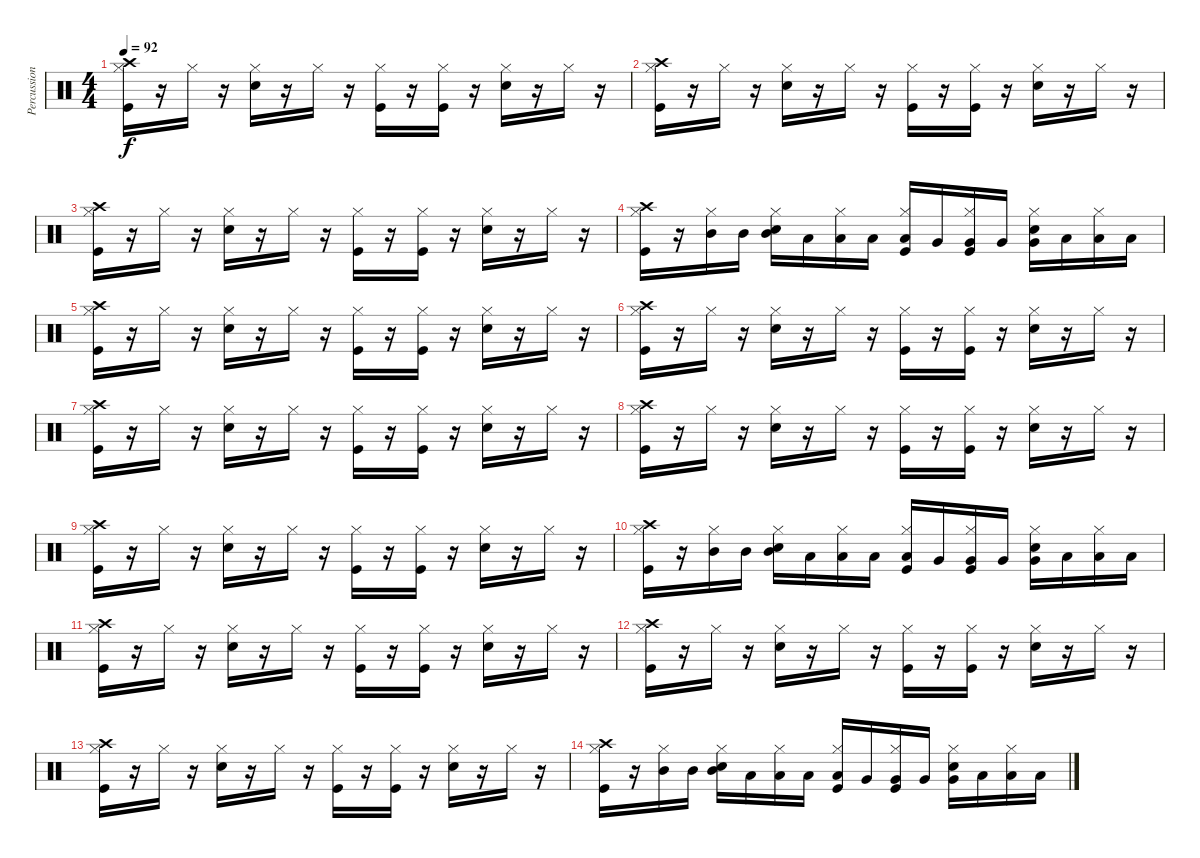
\track ("Percussion" "Percussion") {instrument percussion}
\staff {score}
\articulation defaults
\ts (4 4)
\tempo 92
\clef neutral
\ks c
("Crash high (hit)" "Kick (hit)" "Hi-Hat (closed)").16{dy f} r.16 "Hi-Hat (closed)".16 r.16 ("Hi-Hat (closed)" "Snare (hit) 2").16 r.16 "Hi-Hat (closed)".16 r.16 ("Kick (hit)" "Hi-Hat (closed)").16 r.16 ("Kick (hit)" "Hi-Hat (closed)").16 r.16 ("Snare (hit) 2" "Hi-Hat (closed)").16 r.16 "Hi-Hat (closed)".16 r.16 |
("Crash high (hit)" "Kick (hit)" "Hi-Hat (closed)").16 r.16 "Hi-Hat (closed)".16 r.16 ("Hi-Hat (closed)" "Snare (hit) 2").16 r.16 "Hi-Hat (closed)".16 r.16 ("Kick (hit)" "Hi-Hat (closed)").16 r.16 ("Kick (hit)" "Hi-Hat (closed)").16 r.16 ("Snare (hit) 2" "Hi-Hat (closed)").16 r.16 "Hi-Hat (closed)".16 r.16 |
("Crash high (hit)" "Kick (hit)" "Hi-Hat (closed)").16 r.16 "Hi-Hat (closed)".16 r.16 ("Hi-Hat (closed)" "Snare (hit) 2").16 r.16 "Hi-Hat (closed)".16 r.16 ("Kick (hit)" "Hi-Hat (closed)").16 r.16 ("Kick (hit)" "Hi-Hat (closed)").16 r.16 ("Snare (hit) 2" "Hi-Hat (closed)").16 r.16 "Hi-Hat (closed)".16 r.16 |
("Crash high (hit)" "Kick (hit)" "Hi-Hat (closed)").16 r.16 ("Hi-Hat (closed)" "Mid Tom (hit)").16 "Mid Tom (hit)".16 ("Hi-Hat (closed)" "Snare (hit) 2" "Mid Tom (hit)").16 "Low Tom (hit)".16 ("Hi-Hat (closed)" "Low Tom (hit)").16 "Low Tom (hit)".16 ("Kick (hit)" "Hi-Hat (closed)" "Low Tom (hit)").16 "Very Low Tom (hit)".16 ("Kick (hit)" "Hi-Hat (closed)" "Very Low Tom (hit)").16 "Very Low Tom (hit)".16 ("Snare (hit) 2" "Hi-Hat (closed)" "Very Low Tom (hit)").16 "Low Floor Tom (hit)".16 ("Hi-Hat (closed)" "Low Floor Tom (hit)").16 "Low Floor Tom (hit)".16 |
("Crash high (hit)" "Kick (hit)" "Hi-Hat (closed)").16 r.16 "Hi-Hat (closed)".16 r.16 ("Hi-Hat (closed)" "Snare (hit) 2").16 r.16 "Hi-Hat (closed)".16 r.16 ("Kick (hit)" "Hi-Hat (closed)").16 r.16 ("Kick (hit)" "Hi-Hat (closed)").16 r.16 ("Snare (hit) 2" "Hi-Hat (closed)").16 r.16 "Hi-Hat (closed)".16 r.16 |
("Crash high (hit)" "Kick (hit)" "Hi-Hat (closed)").16 r.16 "Hi-Hat (closed)".16 r.16 ("Hi-Hat (closed)" "Snare (hit) 2").16 r.16 "Hi-Hat (closed)".16 r.16 ("Kick (hit)" "Hi-Hat (closed)").16 r.16 ("Kick (hit)" "Hi-Hat (closed)").16 r.16 ("Snare (hit) 2" "Hi-Hat (closed)").16 r.16 "Hi-Hat (closed)".16 r.16 |
("Crash high (hit)" "Kick (hit)" "Hi-Hat (closed)").16 r.16 "Hi-Hat (closed)".16 r.16 ("Hi-Hat (closed)" "Snare (hit) 2").16 r.16 "Hi-Hat (closed)".16 r.16 ("Kick (hit)" "Hi-Hat (closed)").16 r.16 ("Kick (hit)" "Hi-Hat (closed)").16 r.16 ("Snare (hit) 2" "Hi-Hat (closed)").16 r.16 "Hi-Hat (closed)".16 r.16 |
("Crash high (hit)" "Kick (hit)" "Hi-Hat (closed)").16 r.16 "Hi-Hat (closed)".16 r.16 ("Hi-Hat (closed)" "Snare (hit) 2").16 r.16 "Hi-Hat (closed)".16 r.16 ("Kick (hit)" "Hi-Hat (closed)").16 r.16 ("Kick (hit)" "Hi-Hat (closed)").16 r.16 ("Snare (hit) 2" "Hi-Hat (closed)").16 r.16 "Hi-Hat (closed)".16 r.16 |
("Crash high (hit)" "Kick (hit)" "Hi-Hat (closed)").16 r.16 "Hi-Hat (closed)".16 r.16 ("Hi-Hat (closed)" "Snare (hit) 2").16 r.16 "Hi-Hat (closed)".16 r.16 ("Kick (hit)" "Hi-Hat (closed)").16 r.16 ("Kick (hit)" "Hi-Hat (closed)").16 r.16 ("Snare (hit) 2" "Hi-Hat (closed)").16 r.16 "Hi-Hat (closed)".16 r.16 |
("Crash high (hit)" "Kick (hit)" "Hi-Hat (closed)").16 r.16 ("Hi-Hat (closed)" "Mid Tom (hit)").16 "Mid Tom (hit)".16 ("Hi-Hat (closed)" "Snare (hit) 2" "Mid Tom (hit)").16 "Low Tom (hit)".16 ("Hi-Hat (closed)" "Low Tom (hit)").16 "Low Tom (hit)".16 ("Kick (hit)" "Hi-Hat (closed)" "Low Tom (hit)").16 "Very Low Tom (hit)".16 ("Kick (hit)" "Hi-Hat (closed)" "Very Low Tom (hit)").16 "Very Low Tom (hit)".16 ("Snare (hit) 2" "Hi-Hat (closed)" "Very Low Tom (hit)").16 "Low Floor Tom (hit)".16 ("Hi-Hat (closed)" "Low Floor Tom (hit)").16 "Low Floor Tom (hit)".16 |
("Crash high (hit)" "Kick (hit)" "Hi-Hat (closed)").16 r.16 "Hi-Hat (closed)".16 r.16 ("Hi-Hat (closed)" "Snare (hit) 2").16 r.16 "Hi-Hat (closed)".16 r.16 ("Kick (hit)" "Hi-Hat (closed)").16 r.16 ("Kick (hit)" "Hi-Hat (closed)").16 r.16 ("Snare (hit) 2" "Hi-Hat (closed)").16 r.16 "Hi-Hat (closed)".16 r.16 |
("Crash high (hit)" "Kick (hit)" "Hi-Hat (closed)").16 r.16 "Hi-Hat (closed)".16 r.16 ("Hi-Hat (closed)" "Snare (hit) 2").16 r.16 "Hi-Hat (closed)".16 r.16 ("Kick (hit)" "Hi-Hat (closed)").16 r.16 ("Kick (hit)" "Hi-Hat (closed)").16 r.16 ("Snare (hit) 2" "Hi-Hat (closed)").16 r.16 "Hi-Hat (closed)".16 r.16 |
("Crash high (hit)" "Kick (hit)" "Hi-Hat (closed)").16 r.16 "Hi-Hat (closed)".16 r.16 ("Hi-Hat (closed)" "Snare (hit) 2").16 r.16 "Hi-Hat (closed)".16 r.16 ("Kick (hit)" "Hi-Hat (closed)").16 r.16 ("Kick (hit)" "Hi-Hat (closed)").16 r.16 ("Snare (hit) 2" "Hi-Hat (closed)").16 r.16 "Hi-Hat (closed)".16 r.16 |
("Crash high (hit)" "Kick (hit)" "Hi-Hat (closed)").16 r.16 ("Hi-Hat (closed)" "Mid Tom (hit)").16 "Mid Tom (hit)".16 ("Hi-Hat (closed)" "Snare (hit) 2" "Mid Tom (hit)").16 "Low Tom (hit)".16 ("Hi-Hat (closed)" "Low Tom (hit)").16 "Low Tom (hit)".16 ("Kick (hit)" "Hi-Hat (closed)" "Low Tom (hit)").16 "Very Low Tom (hit)".16 ("Kick (hit)" "Hi-Hat (closed)" "Very Low Tom (hit)").16 "Very Low Tom (hit)".16 ("Snare (hit) 2" "Hi-Hat (closed)" "Very Low Tom (hit)").16 "Low Floor Tom (hit)".16 ("Hi-Hat (closed)" "Low Floor Tom (hit)").16 "Low Floor Tom (hit)".16
